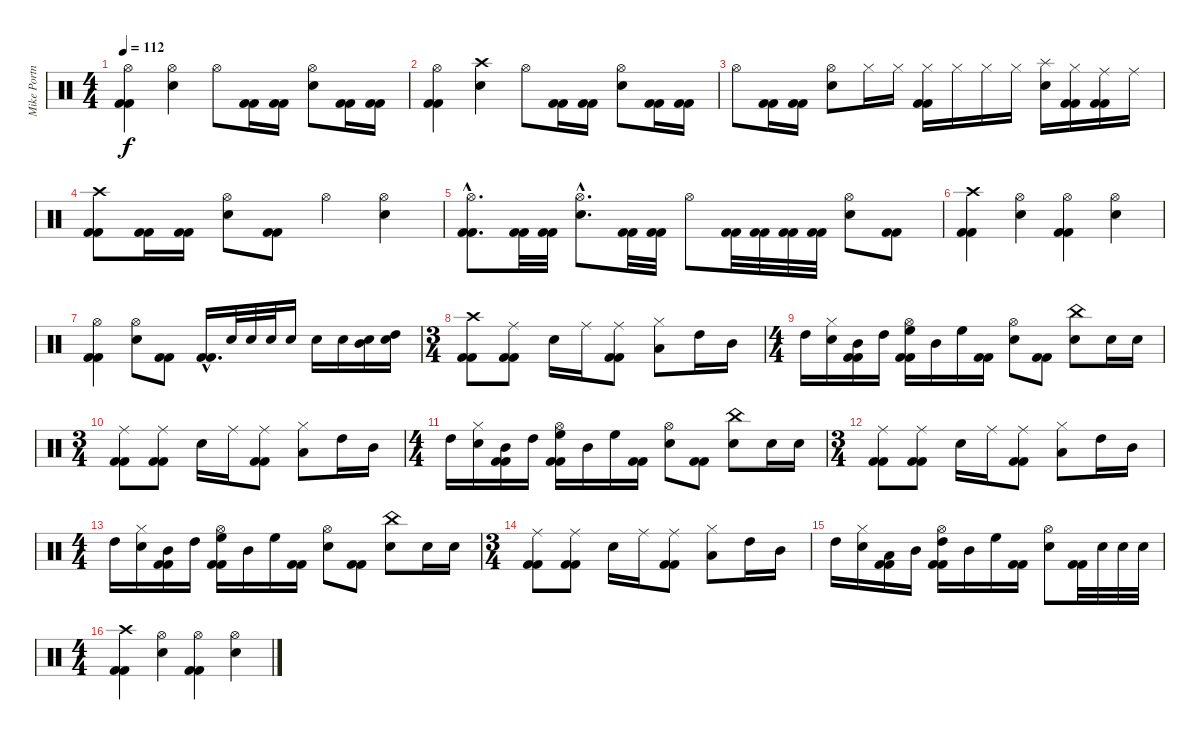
\track ("Mike Portnoy - Drum" "Mike Portn") {instrument percussion}
\staff {score}
\articulation defaults
\ts (4 4)
\tempo 112
\clef neutral
\ks c
("Hi-Hat (open)" "Kick (hit) 2" "Kick (hit) 2").4{dy f} ("Hi-Hat (open)" "Snare (hit) 2").4 "Hi-Hat (open)".8 ("Kick (hit) 2" "Kick (hit) 2").16 ("Kick (hit) 2" "Kick (hit) 2").16 ("Hi-Hat (open)" "Snare (hit) 2").8 ("Kick (hit) 2" "Kick (hit) 2").16 ("Kick (hit) 2" "Kick (hit) 2").16 |
("Hi-Hat (open)" "Kick (hit) 2" "Kick (hit) 2").4 ("Crash high (hit)" "Snare (hit) 2").4 "Hi-Hat (open)".8 ("Kick (hit) 2" "Kick (hit) 2").16 ("Kick (hit) 2" "Kick (hit) 2").16 ("Hi-Hat (open)" "Snare (hit) 2").8 ("Kick (hit) 2" "Kick (hit) 2").16 ("Kick (hit) 2" "Kick (hit) 2").16 |
"Hi-Hat (open)".8 ("Kick (hit) 2" "Kick (hit) 2").16 ("Kick (hit) 2" "Kick (hit) 2").16 ("Hi-Hat (open)" "Snare (hit) 2").8 "Hi-Hat (closed)".16 "Hi-Hat (closed)".16 ("Hi-Hat (closed)" "Kick (hit) 2" "Kick (hit) 2").16 "Hi-Hat (closed)".16 "Hi-Hat (closed)".16 "Hi-Hat (closed)".16 ("Splash (hit)" "Snare (hit) 2").16 ("Hi-Hat (closed)" "Kick (hit) 2" "Kick (hit) 2").16 ("Ride (middle)" "Kick (hit) 2" "Kick (hit) 2").16 "Ride (middle)".16 |
("Crash high (hit)" "Kick (hit) 2" "Kick (hit) 2").8 ("Kick (hit) 2" "Kick (hit) 2").16 ("Kick (hit) 2" "Kick (hit) 2").16 ("Hi-Hat (open)" "Snare (hit) 2").8 ("Kick (hit) 2" "Kick (hit) 2").8 "Hi-Hat (open)".4 ("Hi-Hat (open)" "Snare (hit) 2").4 |
("Hi-Hat (open)"{hac} "Kick (hit) 2"{hac} "Kick (hit) 2"{hac}).8{d} ("Kick (hit) 2" "Kick (hit) 2").32 ("Kick (hit) 2" "Kick (hit) 2").32 ("Hi-Hat (open)"{hac} "Snare (hit) 2"{hac}).8{d} ("Kick (hit) 2" "Kick (hit) 2").32 ("Kick (hit) 2" "Kick (hit) 2").32 "Hi-Hat (open)".8 ("Kick (hit) 2" "Kick (hit) 2").32 ("Kick (hit) 2" "Kick (hit) 2").32 ("Kick (hit) 2" "Kick (hit) 2").32 ("Kick (hit) 2" "Kick (hit) 2").32 ("Hi-Hat (open)" "Snare (hit) 2").8 ("Kick (hit) 2" "Kick (hit) 2").8 |
("Crash high (hit)" "Kick (hit) 2" "Kick (hit) 2").4 ("Hi-Hat (open)" "Snare (hit) 2").4 ("Hi-Hat (open)" "Kick (hit) 2" "Kick (hit) 2").4 ("Hi-Hat (open)" "Snare (hit) 2").4 |
("Hi-Hat (open)" "Kick (hit) 2" "Kick (hit) 2").4 ("Hi-Hat (open)" "Snare (hit) 2").8 ("Kick (hit) 2" "Kick (hit) 2").8 ("Kick (hit) 2"{hac} "Kick (hit) 2"{hac}).16{d} "Snare (hit) 2".32 "Snare (hit) 2".32 "Snare (hit) 2".32 "Snare (hit) 2".16 "Snare (hit) 2".16 "Snare (hit) 2".16 ("Mid Tom (hit)" "Snare (hit) 2").16 ("High Tom (hit)" "Snare (hit) 2").16 |
\ts (3 4)
("Crash high (hit)" "Kick (hit) 2" "Kick (hit) 2").8 ("Ride (middle)" "Kick (hit) 2" "Kick (hit) 2").8 "Snare (hit) 2".16 "Ride (middle)".16 ("Ride (middle)" "Kick (hit) 2" "Kick (hit) 2").8 ("Low Tom (hit)" "Hi-Hat (closed)").8 "High Tom (hit)".16 "Mid Tom (hit)".16 |
\ts (4 4)
"High Tom (hit)".16 ("Snare (hit) 2" "Hi-Hat (closed)").16 ("Mid Tom (hit)" "Kick (hit) 2" "Kick (hit) 2").16 "High Tom (hit)".16 ("Hi-Hat (open)" "High Floor Tom (hit)" "Kick (hit) 2" "Kick (hit) 2").16 "Mid Tom (hit)".16 "High Floor Tom (hit)".16 ("Kick (hit) 2" "Kick (hit) 2").16 ("Hi-Hat (open)" "Snare (hit) 2").8 ("Kick (hit) 2" "Kick (hit) 2").8 ("China (hit)" "Snare (hit) 2").8 "Snare (hit) 2".16 "Snare (hit) 2".16 |
\ts (3 4)
("Ride (middle)" "Kick (hit) 2" "Kick (hit) 2").8 ("Ride (middle)" "Kick (hit) 2" "Kick (hit) 2").8 "Snare (hit) 2".16 "Ride (middle)".16 ("Ride (middle)" "Kick (hit) 2" "Kick (hit) 2").8 ("Low Tom (hit)" "Hi-Hat (closed)").8 "High Tom (hit)".16 "Mid Tom (hit)".16 |
\ts (4 4)
"High Tom (hit)".16 ("Snare (hit) 2" "Hi-Hat (closed)").16 ("Mid Tom (hit)" "Kick (hit) 2" "Kick (hit) 2").16 "High Tom (hit)".16 ("Hi-Hat (open)" "High Floor Tom (hit)" "Kick (hit) 2" "Kick (hit) 2").16 "Mid Tom (hit)".16 "High Floor Tom (hit)".16 ("Kick (hit) 2" "Kick (hit) 2").16 ("Hi-Hat (open)" "Snare (hit) 2").8 ("Kick (hit) 2" "Kick (hit) 2").8 ("China (hit)" "Snare (hit) 2").8 "Snare (hit) 2".16 "Snare (hit) 2".16 |
\ts (3 4)
("Ride (middle)" "Kick (hit) 2" "Kick (hit) 2").8 ("Ride (middle)" "Kick (hit) 2" "Kick (hit) 2").8 "Snare (hit) 2".16 "Ride (middle)".16 ("Ride (middle)" "Kick (hit) 2" "Kick (hit) 2").8 ("Low Tom (hit)" "Hi-Hat (closed)").8 "High Tom (hit)".16 "Mid Tom (hit)".16 |
\ts (4 4)
"High Tom (hit)".16 ("Snare (hit) 2" "Hi-Hat (closed)").16 ("Mid Tom (hit)" "Kick (hit) 2" "Kick (hit) 2").16 "High Tom (hit)".16 ("Hi-Hat (open)" "High Floor Tom (hit)" "Kick (hit) 2" "Kick (hit) 2").16 "Mid Tom (hit)".16 "High Floor Tom (hit)".16 ("Kick (hit) 2" "Kick (hit) 2").16 ("Hi-Hat (open)" "Snare (hit) 2").8 ("Kick (hit) 2" "Kick (hit) 2").8 ("China (hit)" "Snare (hit) 2").8 "Snare (hit) 2".16 "Snare (hit) 2".16 |
\ts (3 4)
("Ride (middle)" "Kick (hit) 2" "Kick (hit) 2").8 ("Ride (middle)" "Kick (hit) 2" "Kick (hit) 2").8 "Snare (hit) 2".16 "Ride (middle)".16 ("Ride (middle)" "Kick (hit) 2" "Kick (hit) 2").8 ("Low Tom (hit)" "Hi-Hat (closed)").8 "High Tom (hit)".16 "Mid Tom (hit)".16 |
"High Tom (hit)".16 ("Snare (hit) 2" "Hi-Hat (closed)").16 ("Low Tom (hit)" "Kick (hit) 2" "Kick (hit) 2").16 "Mid Tom (hit)".16 ("Hi-Hat (open)" "High Tom (hit)" "Kick (hit) 2" "Kick (hit) 2").16 "Mid Tom (hit)".16 "High Floor Tom (hit)".16 ("Kick (hit) 2" "Kick (hit) 2").16 ("Hi-Hat (open)" "Snare (hit) 2").8 ("Kick (hit) 2" "Kick (hit) 2").32 "Snare (hit) 2".32 "Snare (hit) 2".32 "Snare (hit) 2".32 |
\ts (4 4)
("Crash high (hit)" "Kick (hit) 2" "Kick (hit) 2").4 ("Hi-Hat (open)" "Snare (hit) 2").4 ("Hi-Hat (open)" "Kick (hit) 2" "Kick (hit) 2").4 ("Hi-Hat (open)" "Snare (hit) 2").4
